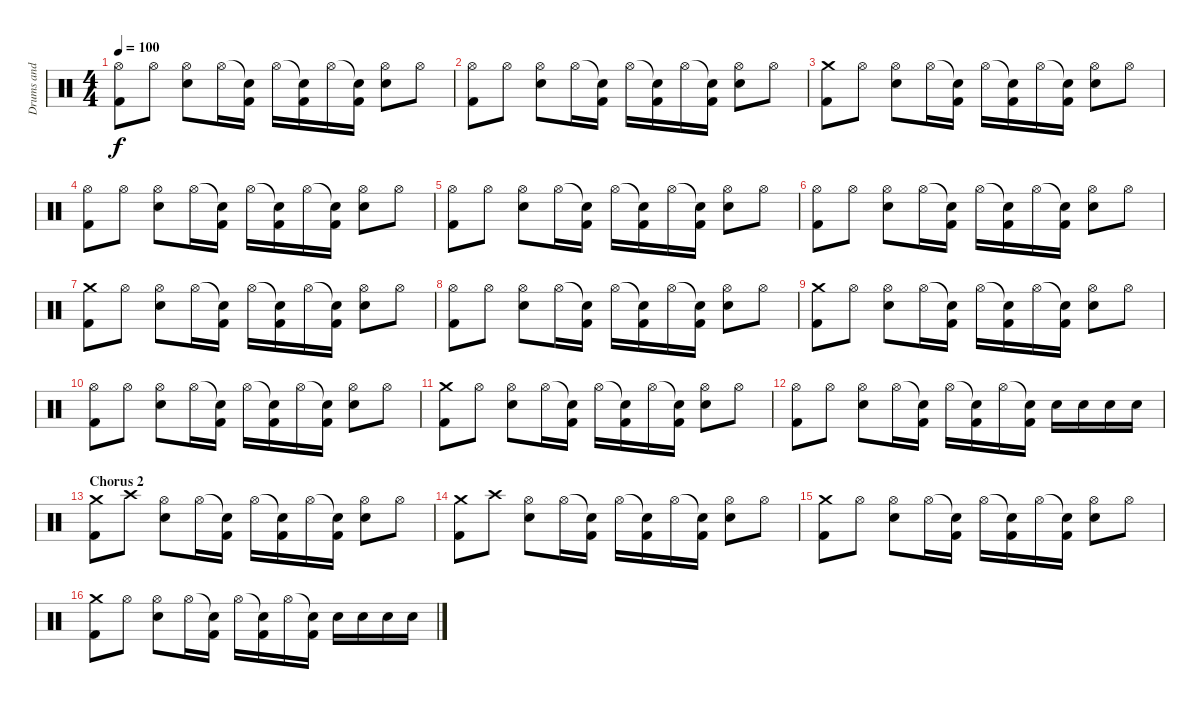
\track ("Drums and Percussion" "Drums and ") {instrument percussion}
\staff {score}
\articulation defaults
\ts (4 4)
\tempo 100
\clef neutral
\ks c
("Hi-Hat (open)" "Kick (hit) 2").8{dy f} "Hi-Hat (open)".8 ("Hi-Hat (open)" "Electric Snare (hit)").8 "Hi-Hat (open)".16 ("Snare (hit)"{t} "Kick (hit) 2").16 "Hi-Hat (open)".16 ("Snare (hit)"{t} "Kick (hit) 2").16 "Hi-Hat (open)".16 ("Snare (hit)"{t} "Kick (hit) 2").16 ("Hi-Hat (open)" "Electric Snare (hit)").8 "Hi-Hat (open)".8 |
("Hi-Hat (open)" "Kick (hit) 2").8 "Hi-Hat (open)".8 ("Hi-Hat (open)" "Electric Snare (hit)").8 "Hi-Hat (open)".16 ("Snare (hit)"{t} "Kick (hit) 2").16 "Hi-Hat (open)".16 ("Snare (hit)"{t} "Kick (hit) 2").16 "Hi-Hat (open)".16 ("Snare (hit)"{t} "Kick (hit) 2").16 ("Hi-Hat (open)" "Electric Snare (hit)").8 "Hi-Hat (open)".8 |
("Crash medium (hit)" "Kick (hit) 2").8 "Hi-Hat (open)".8 ("Hi-Hat (open)" "Electric Snare (hit)").8 "Hi-Hat (open)".16 ("Snare (hit)"{t} "Kick (hit) 2").16 "Hi-Hat (open)".16 ("Snare (hit)"{t} "Kick (hit) 2").16 "Hi-Hat (open)".16 ("Snare (hit)"{t} "Kick (hit) 2").16 ("Hi-Hat (open)" "Electric Snare (hit)").8 "Hi-Hat (open)".8 |
("Hi-Hat (open)" "Kick (hit) 2").8 "Hi-Hat (open)".8 ("Hi-Hat (open)" "Electric Snare (hit)").8 "Hi-Hat (open)".16 ("Snare (hit)"{t} "Kick (hit) 2").16 "Hi-Hat (open)".16 ("Snare (hit)"{t} "Kick (hit) 2").16 "Hi-Hat (open)".16 ("Snare (hit)"{t} "Kick (hit) 2").16 ("Hi-Hat (open)" "Electric Snare (hit)").8 "Hi-Hat (open)".8 |
("Hi-Hat (open)" "Kick (hit) 2").8 "Hi-Hat (open)".8 ("Hi-Hat (open)" "Electric Snare (hit)").8 "Hi-Hat (open)".16 ("Snare (hit)"{t} "Kick (hit) 2").16 "Hi-Hat (open)".16 ("Snare (hit)"{t} "Kick (hit) 2").16 "Hi-Hat (open)".16 ("Snare (hit)"{t} "Kick (hit) 2").16 ("Hi-Hat (open)" "Electric Snare (hit)").8 "Hi-Hat (open)".8 |
("Hi-Hat (open)" "Kick (hit) 2").8 "Hi-Hat (open)".8 ("Hi-Hat (open)" "Electric Snare (hit)").8 "Hi-Hat (open)".16 ("Snare (hit)"{t} "Kick (hit) 2").16 "Hi-Hat (open)".16 ("Snare (hit)"{t} "Kick (hit) 2").16 "Hi-Hat (open)".16 ("Snare (hit)"{t} "Kick (hit) 2").16 ("Hi-Hat (open)" "Electric Snare (hit)").8 "Hi-Hat (open)".8 |
("Crash medium (hit)" "Kick (hit) 2").8 "Hi-Hat (open)".8 ("Hi-Hat (open)" "Electric Snare (hit)").8 "Hi-Hat (open)".16 ("Snare (hit)"{t} "Kick (hit) 2").16 "Hi-Hat (open)".16 ("Snare (hit)"{t} "Kick (hit) 2").16 "Hi-Hat (open)".16 ("Snare (hit)"{t} "Kick (hit) 2").16 ("Hi-Hat (open)" "Electric Snare (hit)").8 "Hi-Hat (open)".8 |
("Hi-Hat (open)" "Kick (hit) 2").8 "Hi-Hat (open)".8 ("Hi-Hat (open)" "Electric Snare (hit)").8 "Hi-Hat (open)".16 ("Snare (hit)"{t} "Kick (hit) 2").16 "Hi-Hat (open)".16 ("Snare (hit)"{t} "Kick (hit) 2").16 "Hi-Hat (open)".16 ("Snare (hit)"{t} "Kick (hit) 2").16 ("Hi-Hat (open)" "Electric Snare (hit)").8 "Hi-Hat (open)".8 |
("Crash medium (hit)" "Kick (hit) 2").8 "Hi-Hat (open)".8 ("Hi-Hat (open)" "Electric Snare (hit)").8 "Hi-Hat (open)".16 ("Snare (hit)"{t} "Kick (hit) 2").16 "Hi-Hat (open)".16 ("Snare (hit)"{t} "Kick (hit) 2").16 "Hi-Hat (open)".16 ("Snare (hit)"{t} "Kick (hit) 2").16 ("Hi-Hat (open)" "Electric Snare (hit)").8 "Hi-Hat (open)".8 |
("Hi-Hat (open)" "Kick (hit) 2").8 "Hi-Hat (open)".8 ("Hi-Hat (open)" "Electric Snare (hit)").8 "Hi-Hat (open)".16 ("Snare (hit)"{t} "Kick (hit) 2").16 "Hi-Hat (open)".16 ("Snare (hit)"{t} "Kick (hit) 2").16 "Hi-Hat (open)".16 ("Snare (hit)"{t} "Kick (hit) 2").16 ("Hi-Hat (open)" "Electric Snare (hit)").8 "Hi-Hat (open)".8 |
("Crash medium (hit)" "Kick (hit) 2").8 "Hi-Hat (open)".8 ("Hi-Hat (open)" "Electric Snare (hit)").8 "Hi-Hat (open)".16 ("Snare (hit)"{t} "Kick (hit) 2").16 "Hi-Hat (open)".16 ("Snare (hit)"{t} "Kick (hit) 2").16 "Hi-Hat (open)".16 ("Snare (hit)"{t} "Kick (hit) 2").16 ("Hi-Hat (open)" "Electric Snare (hit)").8 "Hi-Hat (open)".8 |
("Hi-Hat (open)" "Kick (hit) 2").8 "Hi-Hat (open)".8 ("Hi-Hat (open)" "Electric Snare (hit)").8 "Hi-Hat (open)".16 ("Snare (hit)"{t} "Kick (hit) 2").16 "Hi-Hat (open)".16 ("Snare (hit)"{t} "Kick (hit) 2").16 "Hi-Hat (open)".16 ("Snare (hit)"{t} "Kick (hit) 2").16 "Electric Snare (hit)".16 "Electric Snare (hit)".16 "Electric Snare (hit)".16 "Electric Snare (hit)".16 |
\section ("" "Chorus 2")
("Crash medium (hit)" "Kick (hit) 2").8 "Crash high (hit)".8 ("Hi-Hat (open)" "Electric Snare (hit)").8 "Hi-Hat (open)".16 ("Snare (hit)"{t} "Kick (hit) 2").16 "Hi-Hat (open)".16 ("Snare (hit)"{t} "Kick (hit) 2").16 "Hi-Hat (open)".16 ("Snare (hit)"{t} "Kick (hit) 2").16 ("Hi-Hat (open)" "Electric Snare (hit)").8 "Hi-Hat (open)".8 |
("Crash medium (hit)" "Kick (hit) 2").8 "Crash high (hit)".8 ("Hi-Hat (open)" "Electric Snare (hit)").8 "Hi-Hat (open)".16 ("Snare (hit)"{t} "Kick (hit) 2").16 "Hi-Hat (open)".16 ("Snare (hit)"{t} "Kick (hit) 2").16 "Hi-Hat (open)".16 ("Snare (hit)"{t} "Kick (hit) 2").16 ("Hi-Hat (open)" "Electric Snare (hit)").8 "Hi-Hat (open)".8 |
("Crash medium (hit)" "Kick (hit) 2").8 "Hi-Hat (open)".8 ("Hi-Hat (open)" "Electric Snare (hit)").8 "Hi-Hat (open)".16 ("Snare (hit)"{t} "Kick (hit) 2").16 "Hi-Hat (open)".16 ("Snare (hit)"{t} "Kick (hit) 2").16 "Hi-Hat (open)".16 ("Snare (hit)"{t} "Kick (hit) 2").16 ("Hi-Hat (open)" "Electric Snare (hit)").8 "Hi-Hat (open)".8 |
("Crash medium (hit)" "Kick (hit) 2").8 "Hi-Hat (open)".8 ("Hi-Hat (open)" "Electric Snare (hit)").8 "Hi-Hat (open)".16 ("Snare (hit)"{t} "Kick (hit) 2").16 "Hi-Hat (open)".16 ("Snare (hit)"{t} "Kick (hit) 2").16 "Hi-Hat (open)".16 ("Snare (hit)"{t} "Kick (hit) 2").16 "Electric Snare (hit)".16 "Electric Snare (hit)".16 "Electric Snare (hit)".16 "Electric Snare (hit)".16
